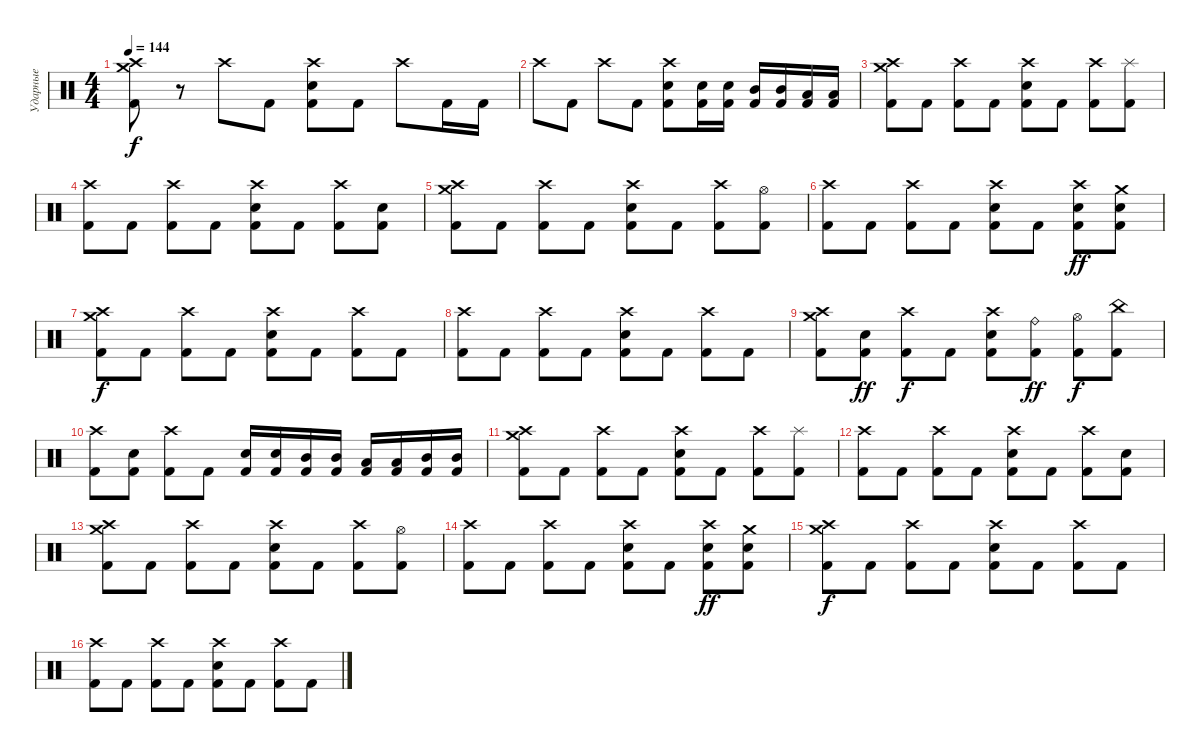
\track ("Ударные" "Ударные") {instrument percussion}
\staff {score}
\articulation defaults
\ts (4 4)
\tempo 144
\clef neutral
\ks c
("Crash high (hit)" "Crash medium (hit)" "Kick (hit) 2").8{dy f} r.8 "Crash high (hit)".8 "Kick (hit) 2".8 ("Crash high (hit)" "Electric Snare (hit)" "Kick (hit) 2").8 "Kick (hit) 2".8 "Crash high (hit)".8 "Kick (hit) 2".16 "Kick (hit) 2".16 |
"Crash high (hit)".8 "Kick (hit) 2".8 "Crash high (hit)".8 "Kick (hit) 2".8 ("Crash high (hit)" "Electric Snare (hit)" "Kick (hit) 2").8 ("Electric Snare (hit)" "Kick (hit) 2").16 ("Electric Snare (hit)" "Kick (hit) 2").16 ("Mid Tom (hit)" "Kick (hit) 2").16 ("Mid Tom (hit)" "Kick (hit) 2").16 ("Low Tom (hit)" "Kick (hit) 2").16 ("Low Tom (hit)" "Kick (hit) 2").16 |
("Crash high (hit)" "Crash medium (hit)" "Kick (hit) 2").8 "Kick (hit) 2".8 ("Crash high (hit)" "Kick (hit) 2").8 "Kick (hit) 2".8 ("Crash high (hit)" "Electric Snare (hit)" "Kick (hit) 2").8 "Kick (hit) 2".8 ("Crash high (hit)" "Kick (hit) 2").8 ("Splash (hit)" "Kick (hit) 2").8 |
("Crash high (hit)" "Kick (hit) 2").8 "Kick (hit) 2".8 ("Crash high (hit)" "Kick (hit) 2").8 "Kick (hit) 2".8 ("Crash high (hit)" "Electric Snare (hit)" "Kick (hit) 2").8 "Kick (hit) 2".8 ("Crash high (hit)" "Kick (hit) 2").8 ("Electric Snare (hit)" "Kick (hit) 2").8 |
("Crash high (hit)" "Crash medium (hit)" "Kick (hit) 2").8 "Kick (hit) 2".8 ("Crash high (hit)" "Kick (hit) 2").8 "Kick (hit) 2".8 ("Crash high (hit)" "Electric Snare (hit)" "Kick (hit) 2").8 "Kick (hit) 2".8 ("Crash high (hit)" "Kick (hit) 2").8 ("Hi-Hat (open)" "Kick (hit) 2").8 |
("Crash high (hit)" "Kick (hit) 2").8 "Kick (hit) 2".8 ("Crash high (hit)" "Kick (hit) 2").8 "Kick (hit) 2".8 ("Crash high (hit)" "Electric Snare (hit)" "Kick (hit) 2").8 "Kick (hit) 2".8 ("Crash high (hit)" "Electric Snare (hit)" "Kick (hit) 2").8{dy ff} ("Crash medium (hit)" "Electric Snare (hit)" "Kick (hit) 2").8 |
("Crash high (hit)" "Crash medium (hit)" "Kick (hit) 2").8{dy f} "Kick (hit) 2".8 ("Crash high (hit)" "Kick (hit) 2").8 "Kick (hit) 2".8 ("Crash high (hit)" "Electric Snare (hit)" "Kick (hit) 2").8 "Kick (hit) 2".8 ("Crash high (hit)" "Kick (hit) 2").8 "Kick (hit) 2".8 |
("Crash high (hit)" "Kick (hit) 2").8 "Kick (hit) 2".8 ("Crash high (hit)" "Kick (hit) 2").8 "Kick (hit) 2".8 ("Crash high (hit)" "Electric Snare (hit)" "Kick (hit) 2").8 "Kick (hit) 2".8 ("Crash high (hit)" "Kick (hit) 2").8 "Kick (hit) 2".8 |
("Crash high (hit)" "Crash medium (hit)" "Kick (hit) 2").8 ("Electric Snare (hit)" "Kick (hit) 2").8{dy ff} ("Crash high (hit)" "Kick (hit) 2").8{dy f} "Kick (hit) 2".8 ("Crash high (hit)" "Electric Snare (hit)" "Kick (hit) 2").8 ("Ride (bell)" "Kick (hit) 2").8{dy ff} ("Hi-Hat (open)" "Kick (hit) 2").8{dy f} ("China (hit)" "Kick (hit) 2").8 |
("Crash high (hit)" "Kick (hit) 2").8 ("Electric Snare (hit)" "Kick (hit) 2").8 ("Crash high (hit)" "Kick (hit) 2").8 "Kick (hit) 2".8 ("Electric Snare (hit)" "Kick (hit) 2").16 ("Electric Snare (hit)" "Kick (hit) 2").16 ("Mid Tom (hit)" "Kick (hit) 2").16 ("Mid Tom (hit)" "Kick (hit) 2").16 ("Low Tom (hit)" "Kick (hit) 2").16 ("Low Tom (hit)" "Kick (hit) 2").16 ("Mid Tom (hit)" "Kick (hit) 2").16 ("Mid Tom (hit)" "Kick (hit) 2").16 |
("Crash high (hit)" "Crash medium (hit)" "Kick (hit) 2").8 "Kick (hit) 2".8 ("Crash high (hit)" "Kick (hit) 2").8 "Kick (hit) 2".8 ("Crash high (hit)" "Electric Snare (hit)" "Kick (hit) 2").8 "Kick (hit) 2".8 ("Crash high (hit)" "Kick (hit) 2").8 ("Splash (hit)" "Kick (hit) 2").8 |
("Crash high (hit)" "Kick (hit) 2").8 "Kick (hit) 2".8 ("Crash high (hit)" "Kick (hit) 2").8 "Kick (hit) 2".8 ("Crash high (hit)" "Electric Snare (hit)" "Kick (hit) 2").8 "Kick (hit) 2".8 ("Crash high (hit)" "Kick (hit) 2").8 ("Electric Snare (hit)" "Kick (hit) 2").8 |
("Crash high (hit)" "Crash medium (hit)" "Kick (hit) 2").8 "Kick (hit) 2".8 ("Crash high (hit)" "Kick (hit) 2").8 "Kick (hit) 2".8 ("Crash high (hit)" "Electric Snare (hit)" "Kick (hit) 2").8 "Kick (hit) 2".8 ("Crash high (hit)" "Kick (hit) 2").8 ("Hi-Hat (open)" "Kick (hit) 2").8 |
("Crash high (hit)" "Kick (hit) 2").8 "Kick (hit) 2".8 ("Crash high (hit)" "Kick (hit) 2").8 "Kick (hit) 2".8 ("Crash high (hit)" "Electric Snare (hit)" "Kick (hit) 2").8 "Kick (hit) 2".8 ("Crash high (hit)" "Electric Snare (hit)" "Kick (hit) 2").8{dy ff} ("Crash medium (hit)" "Electric Snare (hit)" "Kick (hit) 2").8 |
("Crash high (hit)" "Crash medium (hit)" "Kick (hit) 2").8{dy f} "Kick (hit) 2".8 ("Crash high (hit)" "Kick (hit) 2").8 "Kick (hit) 2".8 ("Crash high (hit)" "Electric Snare (hit)" "Kick (hit) 2").8 "Kick (hit) 2".8 ("Crash high (hit)" "Kick (hit) 2").8 "Kick (hit) 2".8 |
("Crash high (hit)" "Kick (hit) 2").8 "Kick (hit) 2".8 ("Crash high (hit)" "Kick (hit) 2").8 "Kick (hit) 2".8 ("Crash high (hit)" "Electric Snare (hit)" "Kick (hit) 2").8 "Kick (hit) 2".8 ("Crash high (hit)" "Kick (hit) 2").8 "Kick (hit) 2".8
